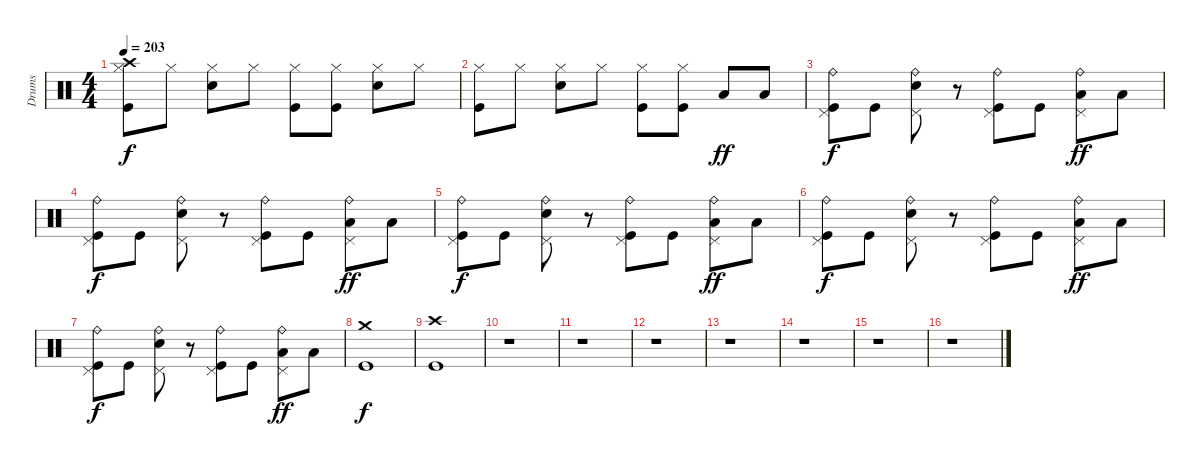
\track ("Drums" "Drums") {instrument percussion}
\staff {score}
\articulation defaults
\ts (4 4)
\tempo 203
\clef neutral
\ks c
("Crash high (hit)" "Hi-Hat (closed)" "Kick (hit)").8{dy f} "Hi-Hat (closed)".8 ("Hi-Hat (closed)" "Snare (hit) 2").8 "Hi-Hat (closed)".8 ("Hi-Hat (closed)" "Kick (hit)").8 ("Hi-Hat (closed)" "Kick (hit)").8 ("Hi-Hat (closed)" "Snare (hit) 2").8 "Hi-Hat (closed)".8 |
("Hi-Hat (closed)" "Kick (hit)").8 "Hi-Hat (closed)".8 ("Hi-Hat (closed)" "Snare (hit) 2").8 "Hi-Hat (closed)".8 ("Hi-Hat (closed)" "Kick (hit)").8 ("Hi-Hat (closed)" "Kick (hit)").8 "Low Tom (hit)".8{dy ff} "Low Tom (hit)".8 |
("Pedal Hi-Hat (hit)" "Ride (bell)" "Kick (hit)").8{dy f} "Kick (hit)".8 ("Pedal Hi-Hat (hit)" "Ride (bell)" "Snare (hit) 2").8 r.8 ("Pedal Hi-Hat (hit)" "Ride (bell)" "Kick (hit)").8 "Kick (hit)".8 ("Pedal Hi-Hat (hit)" "Ride (bell)" "Low Tom (hit)").8{dy ff} "Low Tom (hit)".8 |
("Pedal Hi-Hat (hit)" "Ride (bell)" "Kick (hit)").8{dy f} "Kick (hit)".8 ("Pedal Hi-Hat (hit)" "Ride (bell)" "Snare (hit) 2").8 r.8 ("Pedal Hi-Hat (hit)" "Ride (bell)" "Kick (hit)").8 "Kick (hit)".8 ("Pedal Hi-Hat (hit)" "Ride (bell)" "Low Tom (hit)").8{dy ff} "Low Tom (hit)".8 |
("Pedal Hi-Hat (hit)" "Ride (bell)" "Kick (hit)").8{dy f} "Kick (hit)".8 ("Pedal Hi-Hat (hit)" "Ride (bell)" "Snare (hit) 2").8 r.8 ("Pedal Hi-Hat (hit)" "Ride (bell)" "Kick (hit)").8 "Kick (hit)".8 ("Pedal Hi-Hat (hit)" "Ride (bell)" "Low Tom (hit)").8{dy ff} "Low Tom (hit)".8 |
("Pedal Hi-Hat (hit)" "Ride (bell)" "Kick (hit)").8{dy f} "Kick (hit)".8 ("Pedal Hi-Hat (hit)" "Ride (bell)" "Snare (hit) 2").8 r.8 ("Pedal Hi-Hat (hit)" "Ride (bell)" "Kick (hit)").8 "Kick (hit)".8 ("Pedal Hi-Hat (hit)" "Ride (bell)" "Low Tom (hit)").8{dy ff} "Low Tom (hit)".8 |
("Pedal Hi-Hat (hit)" "Ride (bell)" "Kick (hit)").8{dy f} "Kick (hit)".8 ("Pedal Hi-Hat (hit)" "Ride (bell)" "Snare (hit) 2").8 r.8 ("Pedal Hi-Hat (hit)" "Ride (bell)" "Kick (hit)").8 "Kick (hit)".8 ("Pedal Hi-Hat (hit)" "Ride (bell)" "Low Tom (hit)").8{dy ff} "Low Tom (hit)".8 |
("Crash medium (hit)" "Kick (hit)").1{dy f} |
("Crash high (hit)" "Kick (hit)").1 |
r.1 |
r.1 |
r.1 |
r.1 |
r.1 |
r.1 |
r.1
